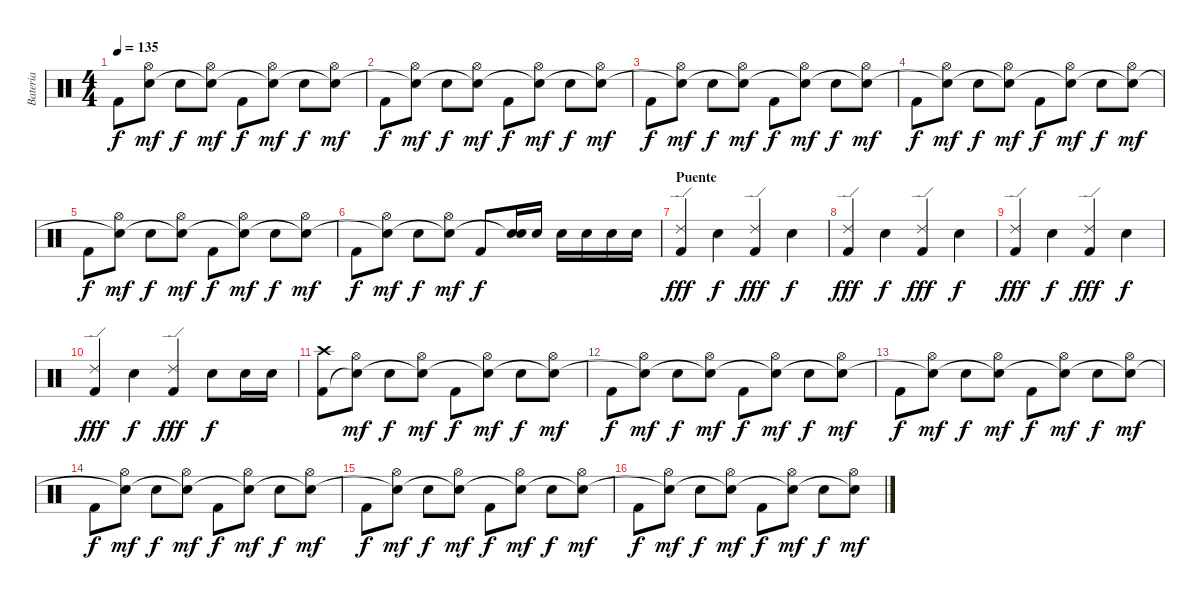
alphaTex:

\track ("Bateria" "Bateria") {instrument percussion}
\staff {score}
\articulation defaults
\ts (4 4)
\tempo 135
\clef neutral
\ks c "Kick (hit) 2".8{dy f}
("Hi-Hat (open)" "Snare (hit)"{t}).8{dy mf} "Electric Snare (hit)".8{dy f} ("Hi-Hat (open)" "Snare (hit)"{t}).8{dy mf} "Kick (hit) 2".8{dy f} ("Hi-Hat (open)" "Snare (hit)"{t}).8{dy mf} "Electric Snare (hit)".8{dy f} ("Hi-Hat (open)" "Snare (hit)"{t}).8{dy mf} |
"Kick (hit) 2".8{dy f} ("Hi-Hat (open)" "Snare (hit)"{t}).8{dy mf} "Electric Snare (hit)".8{dy f} ("Hi-Hat (open)" "Snare (hit)"{t}).8{dy mf} "Kick (hit) 2".8{dy f} ("Hi-Hat (open)" "Snare (hit)"{t}).8{dy mf} "Electric Snare (hit)".8{dy f} ("Hi-Hat (open)" "Snare (hit)"{t}).8{dy mf} |
"Kick (hit) 2".8{dy f} ("Hi-Hat (open)" "Snare (hit)"{t}).8{dy mf} "Electric Snare (hit)".8{dy f} ("Hi-Hat (open)" "Snare (hit)"{t}).8{dy mf} "Kick (hit) 2".8{dy f} ("Hi-Hat (open)" "Snare (hit)"{t}).8{dy mf} "Electric Snare (hit)".8{dy f} ("Hi-Hat (open)" "Snare (hit)"{t}).8{dy mf} |
"Kick (hit) 2".8{dy f} ("Hi-Hat (open)" "Snare (hit)"{t}).8{dy mf} "Electric Snare (hit)".8{dy f} ("Hi-Hat (open)" "Snare (hit)"{t}).8{dy mf} "Kick (hit) 2".8{dy f} ("Hi-Hat (open)" "Snare (hit)"{t}).8{dy mf} "Electric Snare (hit)".8{dy f} ("Hi-Hat (open)" "Snare (hit)"{t}).8{dy mf} |
"Kick (hit) 2".8{dy f} ("Hi-Hat (open)" "Snare (hit)"{t}).8{dy mf} "Electric Snare (hit)".8{dy f} ("Hi-Hat (open)" "Snare (hit)"{t}).8{dy mf} "Kick (hit) 2".8{dy f} ("Hi-Hat (open)" "Snare (hit)"{t}).8{dy mf} "Electric Snare (hit)".8{dy f} ("Hi-Hat (open)" "Snare (hit)"{t}).8{dy mf} |
"Kick (hit) 2".8{dy f} ("Hi-Hat (open)" "Snare (hit)"{t}).8{dy mf} "Electric Snare (hit)".8{dy f} ("Hi-Hat (open)" "Snare (hit)"{t}).8{dy mf} "Kick (hit) 2".8{dy f} ("Electric Snare (hit)" "Snare (hit)"{t}).16 "Electric Snare (hit)".16 "Electric Snare (hit)".16 "Electric Snare (hit)".16 "Electric Snare (hit)".16 "Electric Snare (hit)".16 |
\section ("" "Puente")
("Ride (edge) 2" "Kick (hit) 2").4{dy fff} "Electric Snare (hit)".4{dy f} ("Ride (edge) 2" "Kick (hit) 2").4{dy fff} "Electric Snare (hit)".4{dy f} |
("Ride (edge) 2" "Kick (hit) 2").4{dy fff} "Electric Snare (hit)".4{dy f} ("Ride (edge) 2" "Kick (hit) 2").4{dy fff} "Electric Snare (hit)".4{dy f} |
("Ride (edge) 2" "Kick (hit) 2").4{dy fff} "Electric Snare (hit)".4{dy f} ("Ride (edge) 2" "Kick (hit) 2").4{dy fff} "Electric Snare (hit)".4{dy f} |
("Ride (edge) 2" "Kick (hit) 2").4{dy fff} "Electric Snare (hit)".4{dy f} ("Ride (edge) 2" "Kick (hit) 2").4{dy fff} "Electric Snare (hit)".8{dy f} "Electric Snare (hit)".16 "Electric Snare (hit)".16 |
\section ("" "")
("Crash high (hit)" "Kick (hit) 2").8 ("Hi-Hat (open)" "Snare (hit)"{t}).8{dy mf} "Electric Snare (hit)".8{dy f} ("Hi-Hat (open)" "Snare (hit)"{t}).8{dy mf} "Kick (hit) 2".8{dy f} ("Hi-Hat (open)" "Snare (hit)"{t}).8{dy mf} "Electric Snare (hit)".8{dy f} ("Hi-Hat (open)" "Snare (hit)"{t}).8{dy mf} |
"Kick (hit) 2".8{dy f} ("Hi-Hat (open)" "Snare (hit)"{t}).8{dy mf} "Electric Snare (hit)".8{dy f} ("Hi-Hat (open)" "Snare (hit)"{t}).8{dy mf} "Kick (hit) 2".8{dy f} ("Hi-Hat (open)" "Snare (hit)"{t}).8{dy mf} "Electric Snare (hit)".8{dy f} ("Hi-Hat (open)" "Snare (hit)"{t}).8{dy mf} |
"Kick (hit) 2".8{dy f} ("Hi-Hat (open)" "Snare (hit)"{t}).8{dy mf} "Electric Snare (hit)".8{dy f} ("Hi-Hat (open)" "Snare (hit)"{t}).8{dy mf} "Kick (hit) 2".8{dy f} ("Hi-Hat (open)" "Snare (hit)"{t}).8{dy mf} "Electric Snare (hit)".8{dy f} ("Hi-Hat (open)" "Snare (hit)"{t}).8{dy mf} |
"Kick (hit) 2".8{dy f} ("Hi-Hat (open)" "Snare (hit)"{t}).8{dy mf} "Electric Snare (hit)".8{dy f} ("Hi-Hat (open)" "Snare (hit)"{t}).8{dy mf} "Kick (hit) 2".8{dy f} ("Hi-Hat (open)" "Snare (hit)"{t}).8{dy mf} "Electric Snare (hit)".8{dy f} ("Hi-Hat (open)" "Snare (hit)"{t}).8{dy mf} |
"Kick (hit) 2".8{dy f} ("Hi-Hat (open)" "Snare (hit)"{t}).8{dy mf} "Electric Snare (hit)".8{dy f} ("Hi-Hat (open)" "Snare (hit)"{t}).8{dy mf} "Kick (hit) 2".8{dy f} ("Hi-Hat (open)" "Snare (hit)"{t}).8{dy mf} "Electric Snare (hit)".8{dy f} ("Hi-Hat (open)" "Snare (hit)"{t}).8{dy mf} |
"Kick (hit) 2".8{dy f} ("Hi-Hat (open)" "Snare (hit)"{t}).8{dy mf} "Electric Snare (hit)".8{dy f} ("Hi-Hat (open)" "Snare (hit)"{t}).8{dy mf} "Kick (hit) 2".8{dy f} ("Hi-Hat (open)" "Snare (hit)"{t}).8{dy mf} "Electric Snare (hit)".8{dy f} ("Hi-Hat (open)" "Snare (hit)"{t}).8{dy mf}
